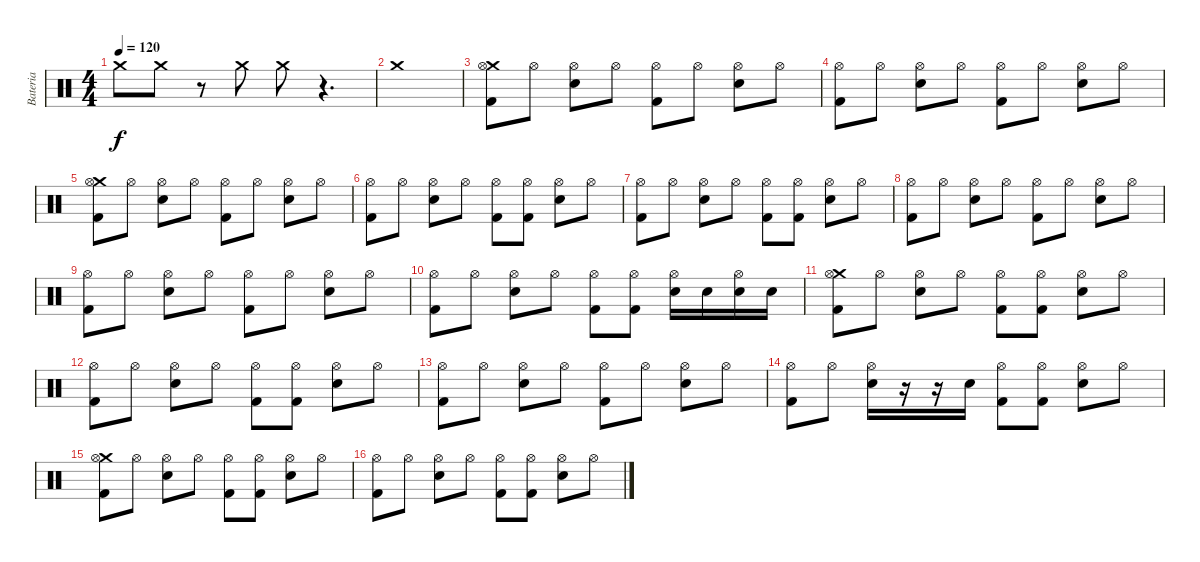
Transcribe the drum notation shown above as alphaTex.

\track ("Bateria" "Bateria") {instrument percussion}
\staff {score}
\articulation defaults
\ts (4 4)
\tempo 120
\clef neutral
\ks c "Crash medium (hit)".8{dy f} "Crash medium (hit)".8
r.8 "Crash medium (hit)".8 "Crash medium (hit)".8 r.4{d} |
"Crash medium (hit)".1 |
("Crash medium (hit)" "Hi-Hat (open)" "Kick (hit) 2").8 "Hi-Hat (open)".8 ("Hi-Hat (open)" "Electric Snare (hit)").8 "Hi-Hat (open)".8 ("Hi-Hat (open)" "Kick (hit) 2").8 "Hi-Hat (open)".8 ("Hi-Hat (open)" "Electric Snare (hit)").8 "Hi-Hat (open)".8 |
("Hi-Hat (open)" "Kick (hit) 2").8 "Hi-Hat (open)".8 ("Hi-Hat (open)" "Electric Snare (hit)").8 "Hi-Hat (open)".8 ("Hi-Hat (open)" "Kick (hit) 2").8 "Hi-Hat (open)".8 ("Hi-Hat (open)" "Electric Snare (hit)").8 "Hi-Hat (open)".8 |
("Crash medium (hit)" "Hi-Hat (open)" "Kick (hit) 2").8 "Hi-Hat (open)".8 ("Hi-Hat (open)" "Electric Snare (hit)").8 "Hi-Hat (open)".8 ("Hi-Hat (open)" "Kick (hit) 2").8 "Hi-Hat (open)".8 ("Hi-Hat (open)" "Electric Snare (hit)").8 "Hi-Hat (open)".8 |
("Hi-Hat (open)" "Kick (hit) 2").8 "Hi-Hat (open)".8 ("Hi-Hat (open)" "Electric Snare (hit)").8 "Hi-Hat (open)".8 ("Hi-Hat (open)" "Kick (hit) 2").8 ("Hi-Hat (open)" "Kick (hit) 2").8 ("Hi-Hat (open)" "Electric Snare (hit)").8 "Hi-Hat (open)".8 |
("Hi-Hat (open)" "Kick (hit) 2").8 "Hi-Hat (open)".8 ("Hi-Hat (open)" "Electric Snare (hit)").8 "Hi-Hat (open)".8 ("Hi-Hat (open)" "Kick (hit) 2").8 ("Hi-Hat (open)" "Kick (hit) 2").8 ("Hi-Hat (open)" "Electric Snare (hit)").8 "Hi-Hat (open)".8 |
("Hi-Hat (open)" "Kick (hit) 2").8 "Hi-Hat (open)".8 ("Hi-Hat (open)" "Electric Snare (hit)").8 "Hi-Hat (open)".8 ("Hi-Hat (open)" "Kick (hit) 2").8 "Hi-Hat (open)".8 ("Hi-Hat (open)" "Electric Snare (hit)").8 "Hi-Hat (open)".8 |
("Hi-Hat (open)" "Kick (hit) 2").8 "Hi-Hat (open)".8 ("Hi-Hat (open)" "Electric Snare (hit)").8 "Hi-Hat (open)".8 ("Hi-Hat (open)" "Kick (hit) 2").8 "Hi-Hat (open)".8 ("Hi-Hat (open)" "Electric Snare (hit)").8 "Hi-Hat (open)".8 |
("Hi-Hat (open)" "Kick (hit) 2").8 "Hi-Hat (open)".8 ("Hi-Hat (open)" "Electric Snare (hit)").8 "Hi-Hat (open)".8 ("Hi-Hat (open)" "Kick (hit) 2").8 ("Hi-Hat (open)" "Kick (hit) 2").8 ("Hi-Hat (open)" "Electric Snare (hit)").16 "Electric Snare (hit)".16 ("Hi-Hat (open)" "Electric Snare (hit)").16 "Electric Snare (hit)".16 |
("Crash medium (hit)" "Hi-Hat (open)" "Kick (hit) 2").8 "Hi-Hat (open)".8 ("Hi-Hat (open)" "Electric Snare (hit)").8 "Hi-Hat (open)".8 ("Hi-Hat (open)" "Kick (hit) 2").8 ("Hi-Hat (open)" "Kick (hit) 2").8 ("Hi-Hat (open)" "Electric Snare (hit)").8 "Hi-Hat (open)".8 |
("Hi-Hat (open)" "Kick (hit) 2").8 "Hi-Hat (open)".8 ("Hi-Hat (open)" "Electric Snare (hit)").8 "Hi-Hat (open)".8 ("Hi-Hat (open)" "Kick (hit) 2").8 ("Hi-Hat (open)" "Kick (hit) 2").8 ("Hi-Hat (open)" "Electric Snare (hit)").8 "Hi-Hat (open)".8 |
("Hi-Hat (open)" "Kick (hit) 2").8 "Hi-Hat (open)".8 ("Hi-Hat (open)" "Electric Snare (hit)").8 "Hi-Hat (open)".8 ("Hi-Hat (open)" "Kick (hit) 2").8 "Hi-Hat (open)".8 ("Hi-Hat (open)" "Electric Snare (hit)").8 "Hi-Hat (open)".8 |
("Hi-Hat (open)" "Kick (hit) 2").8 "Hi-Hat (open)".8 ("Hi-Hat (open)" "Electric Snare (hit)").16 r.16 r.16 "Electric Snare (hit)".16 ("Hi-Hat (open)" "Kick (hit) 2").8 ("Hi-Hat (open)" "Kick (hit) 2").8 ("Hi-Hat (open)" "Electric Snare (hit)").8 "Hi-Hat (open)".8 |
("Crash medium (hit)" "Hi-Hat (open)" "Kick (hit) 2").8 "Hi-Hat (open)".8 ("Hi-Hat (open)" "Electric Snare (hit)").8 "Hi-Hat (open)".8 ("Hi-Hat (open)" "Kick (hit) 2").8 ("Hi-Hat (open)" "Kick (hit) 2").8 ("Hi-Hat (open)" "Electric Snare (hit)").8 "Hi-Hat (open)".8 |
("Hi-Hat (open)" "Kick (hit) 2").8 "Hi-Hat (open)".8 ("Hi-Hat (open)" "Electric Snare (hit)").8 "Hi-Hat (open)".8 ("Hi-Hat (open)" "Kick (hit) 2").8 ("Hi-Hat (open)" "Kick (hit) 2").8 ("Hi-Hat (open)" "Electric Snare (hit)").8 "Hi-Hat (open)".8
